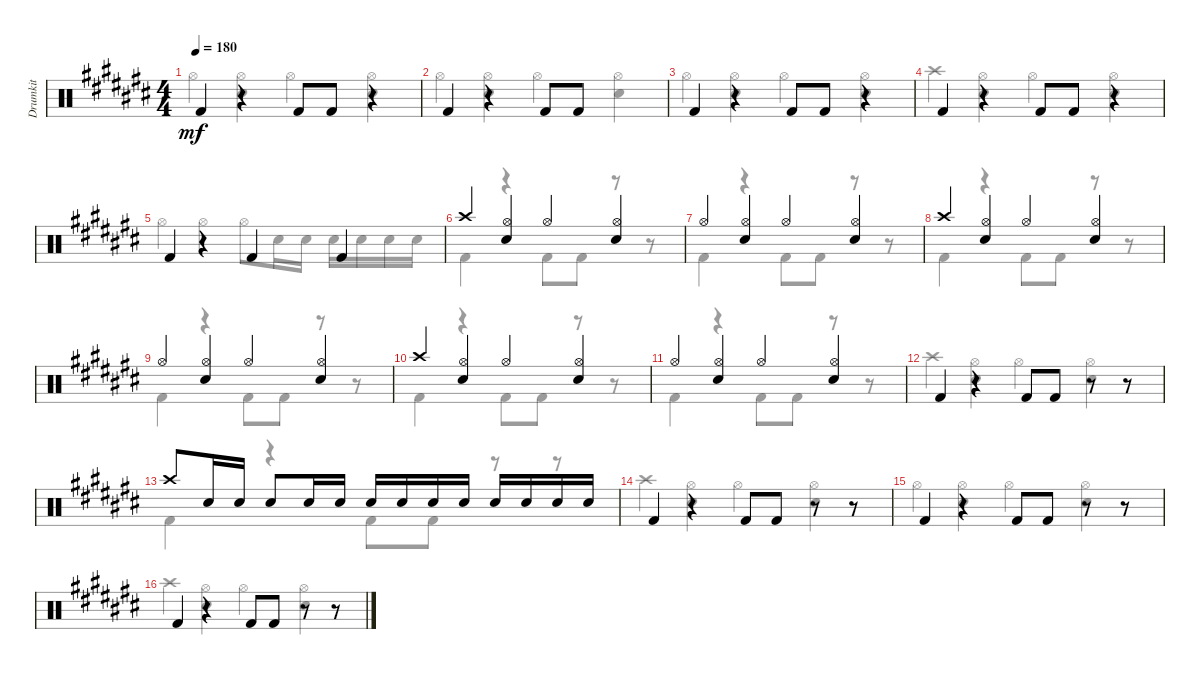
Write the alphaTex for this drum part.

\track ("Drumkit" "Drumkit") {instrument percussion}
\staff {score}
\articulation defaults
\voice
\ts (4 4)
\tempo 180
\clef neutral
\ks c# "Kick (hit) 2".4{dy mf}
r.4 "Kick (hit) 2".8 "Kick (hit) 2".8 r.4 |
"Kick (hit) 2".4 r.4 "Kick (hit) 2".8 "Kick (hit) 2".8 |
"Kick (hit) 2".4 r.4 "Kick (hit) 2".8 "Kick (hit) 2".8 r.4 |
"Kick (hit) 2".4 r.4 "Kick (hit) 2".8 "Kick (hit) 2".8 r.4 |
"Kick (hit) 2".4 r.4 "Kick (hit) 2".4 "Kick (hit) 2".4 |
"Crash high (hit)".4 ("Hi-Hat (open)" "Snare (hit) 2").4 "Hi-Hat (open)".4 ("Hi-Hat (open)" "Snare (hit) 2").4 |
"Hi-Hat (open)".4 ("Hi-Hat (open)" "Snare (hit) 2").4 "Hi-Hat (open)".4 ("Hi-Hat (open)" "Snare (hit) 2").4 |
"Crash high (hit)".4 ("Hi-Hat (open)" "Snare (hit) 2").4 "Hi-Hat (open)".4 ("Hi-Hat (open)" "Snare (hit) 2").4 |
"Hi-Hat (open)".4 ("Hi-Hat (open)" "Snare (hit) 2").4 "Hi-Hat (open)".4 ("Hi-Hat (open)" "Snare (hit) 2").4 |
"Crash high (hit)".4 ("Hi-Hat (open)" "Snare (hit) 2").4 "Hi-Hat (open)".4 ("Hi-Hat (open)" "Snare (hit) 2").4 |
"Hi-Hat (open)".4 ("Hi-Hat (open)" "Snare (hit) 2").4 "Hi-Hat (open)".4 ("Hi-Hat (open)" "Snare (hit) 2").4 |
"Kick (hit) 2".4 r.4 "Kick (hit) 2".8 "Kick (hit) 2".8 r.8 r.8 |
"Crash high (hit)".8 "Snare (hit) 2".16 "Snare (hit) 2".16 "Snare (hit) 2".8 "Snare (hit) 2".16 "Snare (hit) 2".16 "Snare (hit) 2".16 "Snare (hit) 2".16 "Snare (hit) 2".16 "Snare (hit) 2".16 "Snare (hit) 2".16 "Snare (hit) 2".16 "Snare (hit) 2".16 "Snare (hit) 2".16 |
"Kick (hit) 2".4 r.4 "Kick (hit) 2".8 "Kick (hit) 2".8 r.8 r.8 |
"Kick (hit) 2".4 r.4 "Kick (hit) 2".8 "Kick (hit) 2".8 r.8 r.8 |
"Kick (hit) 2".4 r.4 "Kick (hit) 2".8 "Kick (hit) 2".8 r.8 r.8
\voice
\clef neutral
\ottava regular
\simile none
\ks c# "Hi-Hat (open)".4{dy mf}
("Hi-Hat (open)" "Snare (hit) 2").4 "Hi-Hat (open)".4 ("Hi-Hat (open)" "Snare (hit) 2").4 |
"Hi-Hat (open)".4 ("Hi-Hat (open)" "Snare (hit) 2").4 "Hi-Hat (open)".4 ("Hi-Hat (open)" "Snare (hit) 2").4 |
"Hi-Hat (open)".4 ("Hi-Hat (open)" "Snare (hit) 2").4 "Hi-Hat (open)".4 ("Hi-Hat (open)" "Snare (hit) 2").4 |
"Crash high (hit)".4 ("Hi-Hat (open)" "Snare (hit) 2").4 "Hi-Hat (open)".4 ("Hi-Hat (open)" "Snare (hit) 2").4 |
"Hi-Hat (open)".4 "Hi-Hat (open)".4 "Hi-Hat (open)".8 "Snare (hit) 2".16 "Snare (hit) 2".16 "Snare (hit) 2".16 "Snare (hit) 2".16 "Snare (hit) 2".16 "Snare (hit) 2".16 |
"Kick (hit) 2".4 r.4 "Kick (hit) 2".8 "Kick (hit) 2".8 r.8 r.8 |
"Kick (hit) 2".4 r.4 "Kick (hit) 2".8 "Kick (hit) 2".8 r.8 r.8 |
"Kick (hit) 2".4 r.4 "Kick (hit) 2".8 "Kick (hit) 2".8 r.8 r.8 |
"Kick (hit) 2".4 r.4 "Kick (hit) 2".8 "Kick (hit) 2".8 r.8 r.8 |
"Kick (hit) 2".4 r.4 "Kick (hit) 2".8 "Kick (hit) 2".8 r.8 r.8 |
"Kick (hit) 2".4 r.4 "Kick (hit) 2".8 "Kick (hit) 2".8 r.8 r.8 |
"Crash high (hit)".4 ("Hi-Hat (open)" "Snare (hit) 2").4 "Hi-Hat (open)".4 ("Hi-Hat (open)" "Snare (hit) 2").4 |
"Kick (hit) 2".4 r.4 "Kick (hit) 2".8 "Kick (hit) 2".8 r.8 r.8 |
"Crash high (hit)".4 ("Hi-Hat (open)" "Snare (hit) 2").4 "Hi-Hat (open)".4 ("Hi-Hat (open)" "Snare (hit) 2").4 |
"Hi-Hat (open)".4 ("Hi-Hat (open)" "Snare (hit) 2").4 "Hi-Hat (open)".4 ("Hi-Hat (open)" "Snare (hit) 2").4 |
"Crash high (hit)".4 ("Hi-Hat (open)" "Snare (hit) 2").4 "Hi-Hat (open)".4 ("Hi-Hat (open)" "Snare (hit) 2").4
